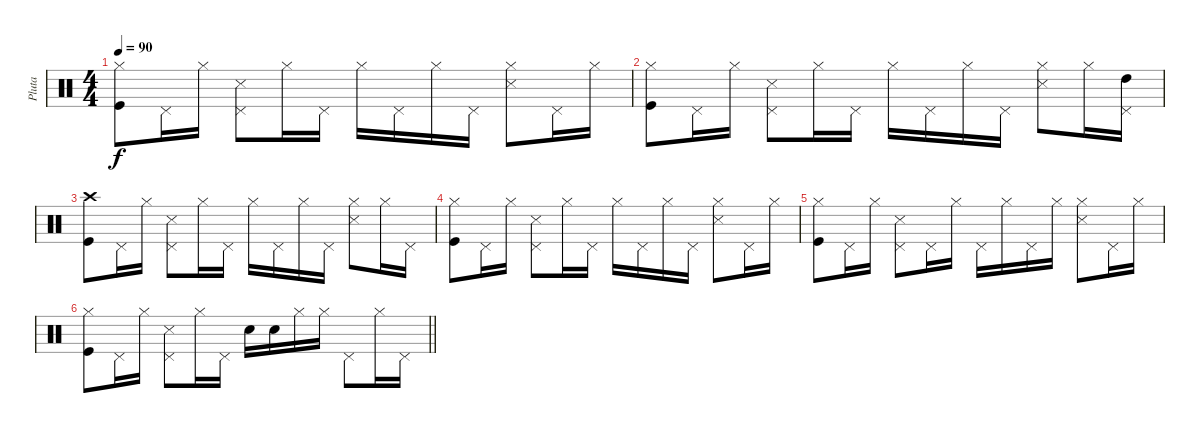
\track ("Pluta" "Pluta") {instrument percussion}
\staff {score}
\articulation defaults
\ts (4 4)
\tempo 90
\clef neutral
\ks c
("Hi-Hat (closed)" "Kick (hit)").8{dy f} "Pedal Hi-Hat (hit)".16 "Hi-Hat (closed)".16 ("Pedal Hi-Hat (hit)" "Snare (side stick) 3").8 "Hi-Hat (closed)".16 "Pedal Hi-Hat (hit)".16 "Hi-Hat (closed)".16 "Pedal Hi-Hat (hit)".16 "Hi-Hat (closed)".16 "Pedal Hi-Hat (hit)".16 ("Hi-Hat (closed)" "Snare (side stick) 3").8 "Pedal Hi-Hat (hit)".16 "Hi-Hat (closed)".16 |
("Hi-Hat (closed)" "Kick (hit)").8 "Pedal Hi-Hat (hit)".16 "Hi-Hat (closed)".16 ("Pedal Hi-Hat (hit)" "Snare (side stick) 3").8 "Hi-Hat (closed)".16 "Pedal Hi-Hat (hit)".16 "Hi-Hat (closed)".16 "Pedal Hi-Hat (hit)".16 "Hi-Hat (closed)".16 "Pedal Hi-Hat (hit)".16 ("Hi-Hat (closed)" "Snare (side stick) 3").8 "Hi-Hat (closed)".16 ("Pedal Hi-Hat (hit)" "High Tom (hit)").16 |
("Crash high (hit)" "Kick (hit)").8 "Pedal Hi-Hat (hit)".16 "Hi-Hat (closed)".16 ("Pedal Hi-Hat (hit)" "Snare (side stick) 3").8 "Hi-Hat (closed)".16 "Pedal Hi-Hat (hit)".16 "Hi-Hat (closed)".16 "Pedal Hi-Hat (hit)".16 "Hi-Hat (closed)".16 "Pedal Hi-Hat (hit)".16 ("Hi-Hat (closed)" "Snare (side stick) 3").8 "Hi-Hat (closed)".16 "Pedal Hi-Hat (hit)".16 |
("Hi-Hat (closed)" "Kick (hit)").8 "Pedal Hi-Hat (hit)".16 "Hi-Hat (closed)".16 ("Pedal Hi-Hat (hit)" "Snare (side stick) 3").8 "Hi-Hat (closed)".16 "Pedal Hi-Hat (hit)".16 "Hi-Hat (closed)".16 "Pedal Hi-Hat (hit)".16 "Hi-Hat (closed)".16 "Pedal Hi-Hat (hit)".16 ("Hi-Hat (closed)" "Snare (side stick) 3").8 "Pedal Hi-Hat (hit)".16 "Hi-Hat (closed)".16 |
("Hi-Hat (closed)" "Kick (hit)").8 "Pedal Hi-Hat (hit)".16 "Hi-Hat (closed)".16 ("Pedal Hi-Hat (hit)" "Snare (side stick) 3").8 "Pedal Hi-Hat (hit)".16 "Hi-Hat (closed)".16 "Pedal Hi-Hat (hit)".16 "Hi-Hat (closed)".16 "Pedal Hi-Hat (hit)".16 "Hi-Hat (closed)".16 ("Hi-Hat (closed)" "Snare (side stick) 3").8 "Pedal Hi-Hat (hit)".16 "Hi-Hat (closed)".16 |
\barLineRight lightlight
("Hi-Hat (closed)" "Kick (hit)").8 "Pedal Hi-Hat (hit)".16 "Hi-Hat (closed)".16 ("Pedal Hi-Hat (hit)" "Snare (side stick) 3").8 "Hi-Hat (closed)".16 "Pedal Hi-Hat (hit)".16 "Snare (hit) 2".16 "Snare (hit) 2".16 "Hi-Hat (closed)".16 "Hi-Hat (closed)".16 "Pedal Hi-Hat (hit)".8 "Hi-Hat (closed)".16 "Pedal Hi-Hat (hit)".16
